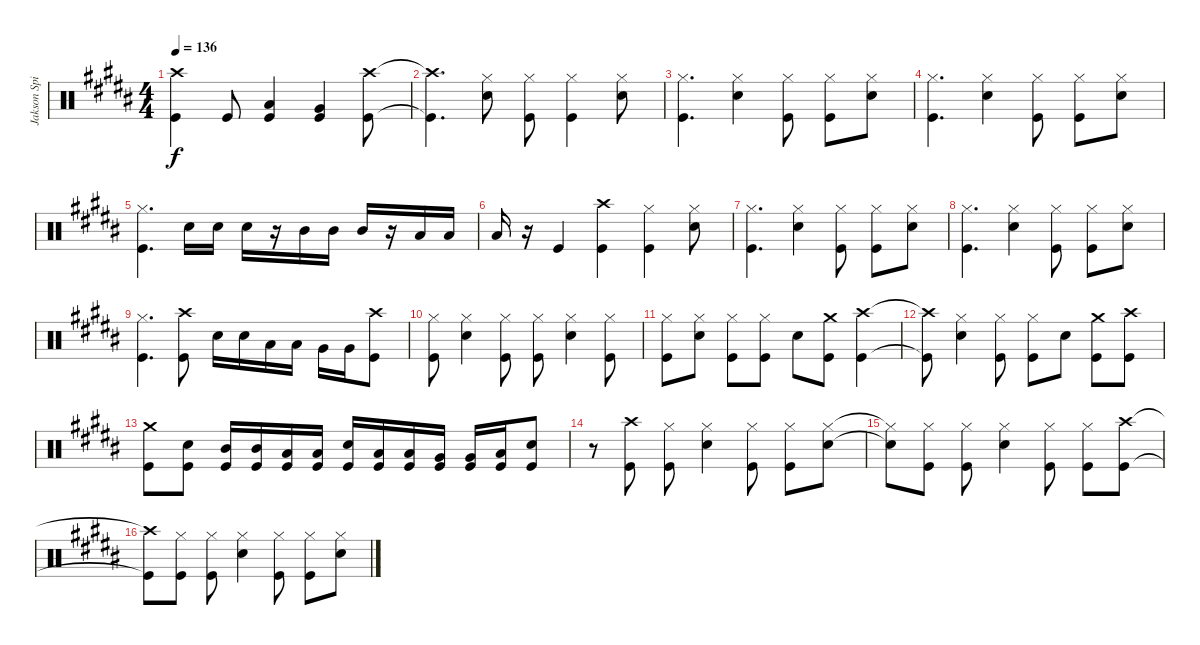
\track ("Jakson Spires Drums" "Jakson Spi") {instrument percussion}
\staff {score}
\articulation defaults
\ts (4 4)
\tempo 136
\clef neutral
\ks b
("Crash high (hit)" "Kick (hit)").4{dy f} "Kick (hit)".8 ("Low Tom (hit)" "Kick (hit)").4 ("Very Low Tom (hit)" "Kick (hit)").4 ("Crash high (hit)" "Kick (hit)").8 |
("Crash high (hit)"{t} "Kick (hit)"{t}).4{d} ("Hi-Hat (closed)" "Snare (hit) 2").8 ("Hi-Hat (closed)" "Kick (hit)").8 ("Hi-Hat (closed)" "Kick (hit)").4 ("Hi-Hat (closed)" "Snare (hit) 2").8 |
("Hi-Hat (closed)" "Kick (hit)").4{d} ("Hi-Hat (closed)" "Snare (hit) 2").4 ("Hi-Hat (closed)" "Kick (hit)").8 ("Hi-Hat (closed)" "Kick (hit)").8 ("Hi-Hat (closed)" "Snare (hit) 2").8 |
("Hi-Hat (closed)" "Kick (hit)").4{d} ("Hi-Hat (closed)" "Snare (hit) 2").4 ("Hi-Hat (closed)" "Kick (hit)").8 ("Hi-Hat (closed)" "Kick (hit)").8 ("Hi-Hat (closed)" "Snare (hit) 2").8 |
("Hi-Hat (closed)" "Kick (hit)").4{d} "Snare (hit) 2".16 "Snare (hit) 2".16 "Snare (hit) 2".16 r.16 "Mid Tom (hit)".16 "Mid Tom (hit)".16 "Mid Tom (hit)".16 r.16 "Low Tom (hit)".16 "Low Tom (hit)".16 |
"Low Tom (hit)".16 r.16 "Kick (hit)".4 ("Crash high (hit)" "Kick (hit)").4 ("Hi-Hat (closed)" "Kick (hit)").4 ("Hi-Hat (closed)" "Snare (hit) 2").8 |
("Hi-Hat (closed)" "Kick (hit)").4{d} ("Hi-Hat (closed)" "Snare (hit) 2").4 ("Hi-Hat (closed)" "Kick (hit)").8 ("Hi-Hat (closed)" "Kick (hit)").8 ("Hi-Hat (closed)" "Snare (hit) 2").8 |
("Hi-Hat (closed)" "Kick (hit)").4{d} ("Hi-Hat (closed)" "Snare (hit) 2").4 ("Hi-Hat (closed)" "Kick (hit)").8 ("Hi-Hat (closed)" "Kick (hit)").8 ("Hi-Hat (closed)" "Snare (hit) 2").8 |
("Hi-Hat (closed)" "Kick (hit)").4{d} ("Crash high (hit)" "Kick (hit)").8 "Snare (hit) 2".16 "Snare (hit) 2".16 "Low Tom (hit)".16 "Low Tom (hit)".16 "Very Low Tom (hit)".16 "Very Low Tom (hit)".16 ("Crash high (hit)" "Kick (hit)").8 |
("Hi-Hat (closed)" "Kick (hit)").8 ("Hi-Hat (closed)" "Snare (hit) 2").4 ("Hi-Hat (closed)" "Kick (hit)").8 ("Hi-Hat (closed)" "Kick (hit)").8 ("Hi-Hat (closed)" "Snare (hit) 2").4 ("Hi-Hat (closed)" "Kick (hit)").8 |
("Hi-Hat (closed)" "Kick (hit)").8 ("Hi-Hat (closed)" "Snare (hit) 2").8 ("Hi-Hat (closed)" "Kick (hit)").8 ("Hi-Hat (closed)" "Kick (hit)").8 "Snare (hit) 2".8 ("Crash medium (hit)" "Kick (hit)").8 ("Crash high (hit)" "Kick (hit)").4 |
("Crash high (hit)"{t} "Kick (hit)"{t}).8 ("Hi-Hat (closed)" "Snare (hit) 2").4 ("Hi-Hat (closed)" "Kick (hit)").8 ("Hi-Hat (closed)" "Kick (hit)").8 "Snare (hit) 2".8 ("Crash medium (hit)" "Kick (hit)").8 ("Crash high (hit)" "Kick (hit)").8 |
("Crash medium (hit)" "Kick (hit)").8 ("Snare (hit) 2" "Kick (hit)").8 ("Mid Tom (hit)" "Kick (hit)").16 ("Mid Tom (hit)" "Kick (hit)").16 ("Low Tom (hit)" "Kick (hit)").16 ("Low Tom (hit)" "Kick (hit)").16 ("Snare (hit) 2" "Kick (hit)").16 ("Low Tom (hit)" "Kick (hit)").16 ("Low Tom (hit)" "Kick (hit)").16 ("Very Low Tom (hit)" "Kick (hit)").16 ("Very Low Tom (hit)" "Kick (hit)").16 ("Low Floor Tom (hit)" "Kick (hit)").16 ("Snare (hit) 2" "Kick (hit)").8 |
r.8 ("Crash high (hit)" "Kick (hit)").8 ("Hi-Hat (closed)" "Kick (hit)").8 ("Hi-Hat (closed)" "Snare (hit) 2").4 ("Hi-Hat (closed)" "Kick (hit)").8 ("Hi-Hat (closed)" "Kick (hit)").8 ("Hi-Hat (closed)" "Snare (hit) 2").8 |
("Hi-Hat (closed)"{t} "Snare (hit) 2"{t}).8 ("Hi-Hat (closed)" "Kick (hit)").8 ("Hi-Hat (closed)" "Kick (hit)").8 ("Hi-Hat (closed)" "Snare (hit) 2").4 ("Hi-Hat (closed)" "Kick (hit)").8 ("Hi-Hat (closed)" "Kick (hit)").8 ("Crash high (hit)" "Kick (hit)").8 |
("Crash high (hit)"{t} "Kick (hit)"{t}).8 ("Hi-Hat (closed)" "Kick (hit)").8 ("Hi-Hat (closed)" "Kick (hit)").8 ("Hi-Hat (closed)" "Snare (hit) 2").4 ("Hi-Hat (closed)" "Kick (hit)").8 ("Hi-Hat (closed)" "Kick (hit)").8 ("Hi-Hat (closed)" "Snare (hit) 2").8
